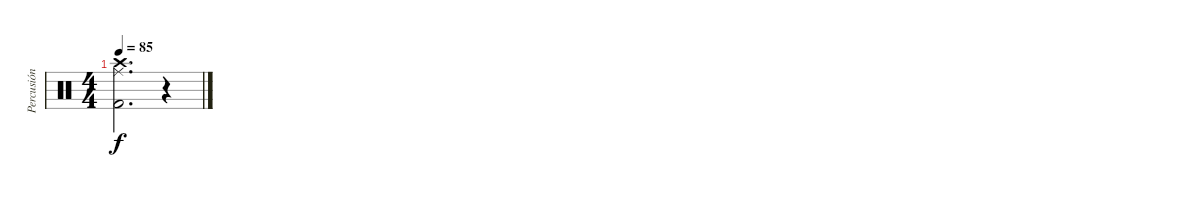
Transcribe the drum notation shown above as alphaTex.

\track ("Percusión" "Percusión") {instrument percussion}
\staff {score}
\articulation defaults
\ts (4 4)
\tempo 85
\clef neutral
\ks c
("Crash high (hit)" "Ride (middle)" "Kick (hit) 2").2{d dy f} r.4
